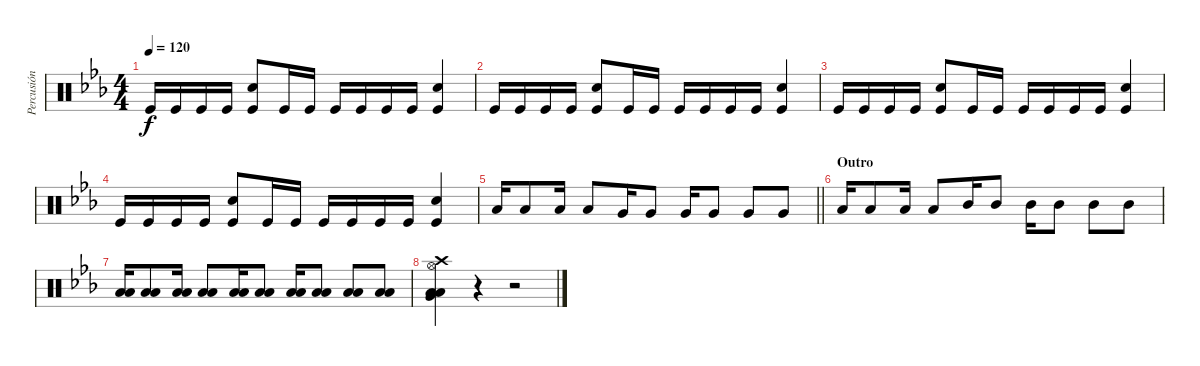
\track ("Percusión" "Percusión") {instrument percussion}
\staff {score}
\articulation defaults
\ts (4 4)
\tempo 120
\clef neutral
\ks eb "Kick (hit)".16{dy f} "Kick (hit)".16 "Kick (hit)".16 "Kick (hit)".16
("Snare (hit) 2" "Kick (hit)").8 "Kick (hit)".16 "Kick (hit)".16 "Kick (hit)".16 "Kick (hit)".16 "Kick (hit)".16 "Kick (hit)".16 ("Snare (hit) 2" "Kick (hit)").4 |
"Kick (hit)".16 "Kick (hit)".16 "Kick (hit)".16 "Kick (hit)".16 ("Snare (hit) 2" "Kick (hit)").8 "Kick (hit)".16 "Kick (hit)".16 "Kick (hit)".16 "Kick (hit)".16 "Kick (hit)".16 "Kick (hit)".16 ("Snare (hit) 2" "Kick (hit)").4 |
"Kick (hit)".16 "Kick (hit)".16 "Kick (hit)".16 "Kick (hit)".16 ("Snare (hit) 2" "Kick (hit)").8 "Kick (hit)".16 "Kick (hit)".16 "Kick (hit)".16 "Kick (hit)".16 "Kick (hit)".16 "Kick (hit)".16 ("Snare (hit) 2" "Kick (hit)").4 |
"Kick (hit)".16 "Kick (hit)".16 "Kick (hit)".16 "Kick (hit)".16 ("Snare (hit) 2" "Kick (hit)").8 "Kick (hit)".16 "Kick (hit)".16 "Kick (hit)".16 "Kick (hit)".16 "Kick (hit)".16 "Kick (hit)".16 ("Snare (hit) 2" "Kick (hit)").4 |
\barLineRight lightlight "Low Floor Tom (hit)".16 "Low Floor Tom (hit)".8 "Low Floor Tom (hit)".16 "Low Floor Tom (hit)".8 "Very Low Tom (hit)".16 "Very Low Tom (hit)".8 "Very Low Tom (hit)".16 "Very Low Tom (hit)".8 "Very Low Tom (hit)".8 "Very Low Tom (hit)".8
|
\section ("" "Outro")
"Low Tom (hit)".16 "Low Tom (hit)".8 "Low Tom (hit)".16 "Low Tom (hit)".8 "Mid Tom (hit)".16 "Mid Tom (hit)".8 "Mid Tom (hit)".16 "Mid Tom (hit)".8 "Mid Tom (hit)".8 "Mid Tom (hit)".8 |
("Low Tom (hit)" "Low Floor Tom (hit)").16 ("Low Tom (hit)" "Low Floor Tom (hit)").8 ("Low Tom (hit)" "Low Floor Tom (hit)").16 ("Low Tom (hit)" "Low Floor Tom (hit)").8 ("Low Tom (hit)" "Low Floor Tom (hit)").16 ("Low Tom (hit)" "Low Floor Tom (hit)").8 ("Low Tom (hit)" "Low Floor Tom (hit)").16 ("Low Tom (hit)" "Low Floor Tom (hit)").8 ("Low Tom (hit)" "Low Floor Tom (hit)").8 ("Low Tom (hit)" "Low Floor Tom (hit)").8 |
("Crash high (hit)" "Hi-Hat (open)" "Very Low Tom (hit)" "Low Tom (hit)" "Low Floor Tom (hit)").4 r.4 r.2
